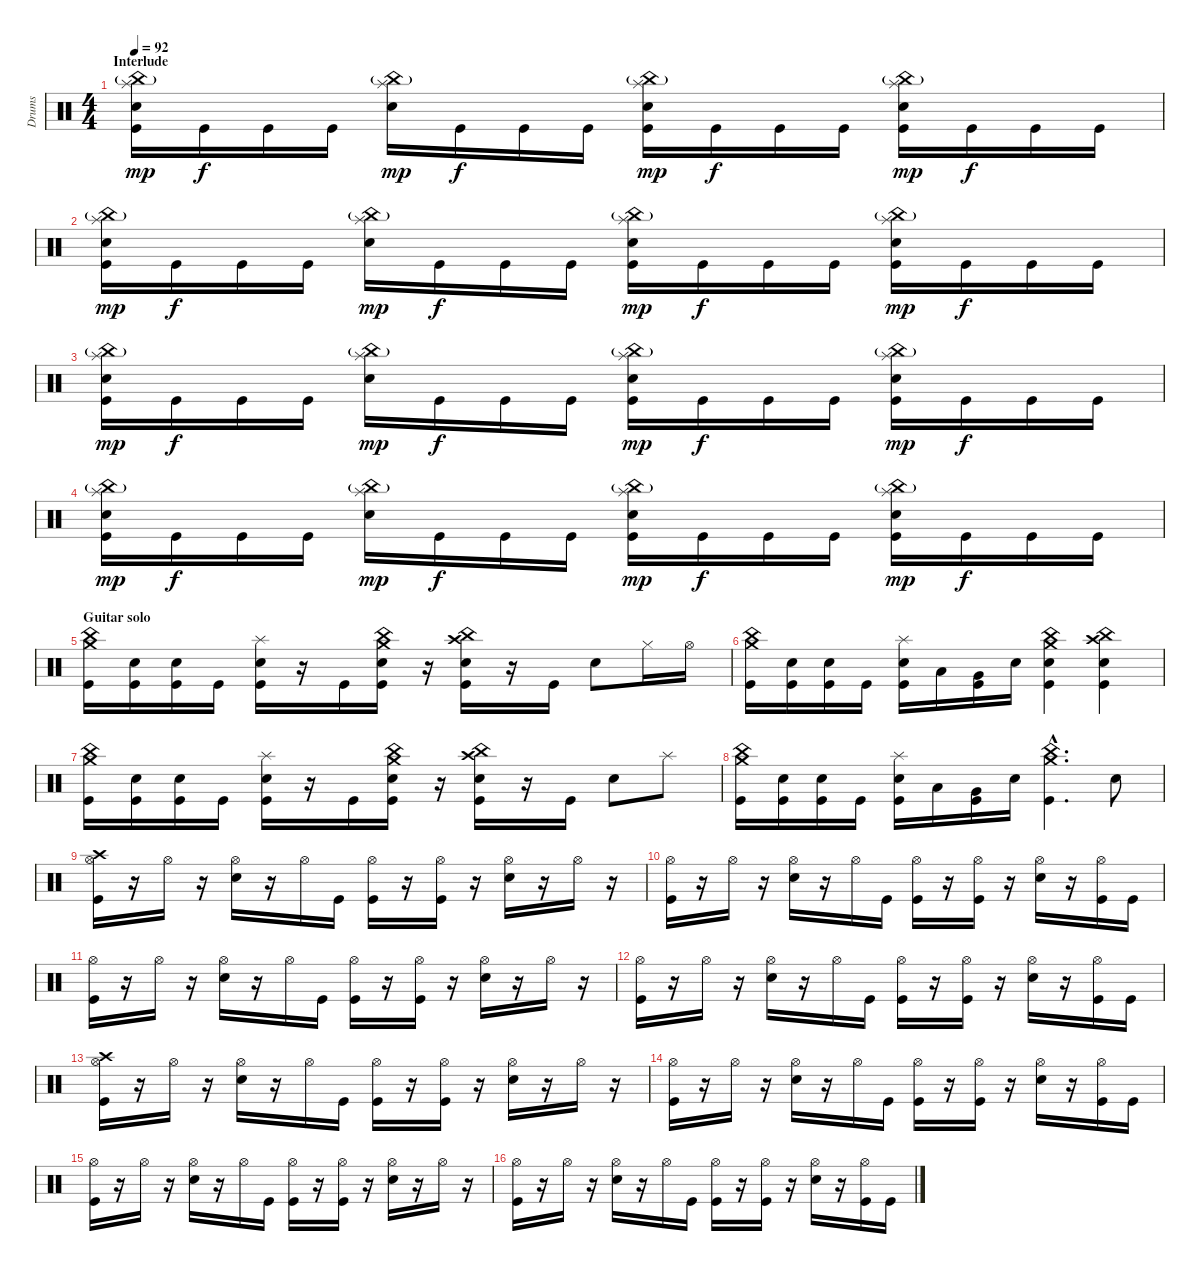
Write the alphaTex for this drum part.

\track ("Drums" "Drums") {instrument percussion}
\staff {score}
\articulation defaults
\ts (4 4)
\section ("" "Interlude")
\tempo 92
\clef neutral
\ks c
("China (hit)"{g} "Splash (hit)" "Snare (hit) 2" "Kick (hit)").16{dy mp} "Kick (hit)".16{dy f} "Kick (hit)".16 "Kick (hit)".16 ("China (hit)"{g} "Splash (hit)" "Snare (hit) 2").16{dy mp} "Kick (hit)".16{dy f} "Kick (hit)".16 "Kick (hit)".16 ("China (hit)"{g} "Splash (hit)" "Snare (hit) 2" "Kick (hit)").16{dy mp} "Kick (hit)".16{dy f} "Kick (hit)".16 "Kick (hit)".16 ("China (hit)"{g} "Splash (hit)" "Snare (hit) 2" "Kick (hit)").16{dy mp} "Kick (hit)".16{dy f} "Kick (hit)".16 "Kick (hit)".16 |
("China (hit)"{g} "Splash (hit)" "Snare (hit) 2" "Kick (hit)").16{dy mp} "Kick (hit)".16{dy f} "Kick (hit)".16 "Kick (hit)".16 ("China (hit)"{g} "Splash (hit)" "Snare (hit) 2").16{dy mp} "Kick (hit)".16{dy f} "Kick (hit)".16 "Kick (hit)".16 ("China (hit)"{g} "Splash (hit)" "Snare (hit) 2" "Kick (hit)").16{dy mp} "Kick (hit)".16{dy f} "Kick (hit)".16 "Kick (hit)".16 ("China (hit)"{g} "Splash (hit)" "Snare (hit) 2" "Kick (hit)").16{dy mp} "Kick (hit)".16{dy f} "Kick (hit)".16 "Kick (hit)".16 |
("China (hit)"{g} "Splash (hit)" "Snare (hit) 2" "Kick (hit)").16{dy mp} "Kick (hit)".16{dy f} "Kick (hit)".16 "Kick (hit)".16 ("China (hit)"{g} "Splash (hit)" "Snare (hit) 2").16{dy mp} "Kick (hit)".16{dy f} "Kick (hit)".16 "Kick (hit)".16 ("China (hit)"{g} "Splash (hit)" "Snare (hit) 2" "Kick (hit)").16{dy mp} "Kick (hit)".16{dy f} "Kick (hit)".16 "Kick (hit)".16 ("China (hit)"{g} "Splash (hit)" "Snare (hit) 2" "Kick (hit)").16{dy mp} "Kick (hit)".16{dy f} "Kick (hit)".16 "Kick (hit)".16 |
("China (hit)"{g} "Splash (hit)" "Snare (hit) 2" "Kick (hit)").16{dy mp} "Kick (hit)".16{dy f} "Kick (hit)".16 "Kick (hit)".16 ("China (hit)"{g} "Splash (hit)" "Snare (hit) 2").16{dy mp} "Kick (hit)".16{dy f} "Kick (hit)".16 "Kick (hit)".16 ("China (hit)"{g} "Splash (hit)" "Snare (hit) 2" "Kick (hit)").16{dy mp} "Kick (hit)".16{dy f} "Kick (hit)".16 "Kick (hit)".16 ("China (hit)"{g} "Splash (hit)" "Snare (hit) 2" "Kick (hit)").16{dy mp} "Kick (hit)".16{dy f} "Kick (hit)".16 "Kick (hit)".16 |
\section ("" "Guitar solo")
("Crash medium (hit)" "China (hit)" "Kick (hit)").16 ("Snare (hit) 2" "Kick (hit)").16 ("Snare (hit) 2" "Kick (hit)").16 "Kick (hit)".16 ("Splash (hit)" "Snare (hit) 2" "Kick (hit)").16 r.16 "Kick (hit)".16 ("Crash medium (hit)" "China (hit)" "Snare (hit) 2" "Kick (hit)").16 r.16 ("Crash high (hit)" "China (hit)" "Snare (hit) 2" "Kick (hit)").16 r.16 "Kick (hit)".16 "Snare (hit) 2".8 "Hi-Hat (closed)".16 "Hi-Hat (open)".16 |
("Crash medium (hit)" "China (hit)" "Kick (hit)").16 ("Snare (hit) 2" "Kick (hit)").16 ("Snare (hit) 2" "Kick (hit)").16 "Kick (hit)".16 ("Splash (hit)" "Snare (hit) 2" "Kick (hit)").16 "Low Tom (hit)".16 ("Very Low Tom (hit)" "Kick (hit)").16 "Snare (hit) 2".16 ("Crash medium (hit)" "China (hit)" "Snare (hit) 2" "Kick (hit)").4 ("Crash high (hit)" "China (hit)" "Snare (hit) 2" "Kick (hit)").4 |
("Crash medium (hit)" "China (hit)" "Kick (hit)").16 ("Snare (hit) 2" "Kick (hit)").16 ("Snare (hit) 2" "Kick (hit)").16 "Kick (hit)".16 ("Splash (hit)" "Snare (hit) 2" "Kick (hit)").16 r.16 "Kick (hit)".16 ("Crash medium (hit)" "China (hit)" "Snare (hit) 2" "Kick (hit)").16 r.16 ("Crash high (hit)" "China (hit)" "Snare (hit) 2" "Kick (hit)").16 r.16 "Kick (hit)".16 "Snare (hit) 2".8 "Splash (hit)".8 |
("Crash medium (hit)" "China (hit)" "Kick (hit)").16 ("Snare (hit) 2" "Kick (hit)").16 ("Snare (hit) 2" "Kick (hit)").16 "Kick (hit)".16 ("Splash (hit)" "Snare (hit) 2" "Kick (hit)").16 "Low Tom (hit)".16 ("Very Low Tom (hit)" "Kick (hit)").16 "Snare (hit) 2".16 ("Crash medium (hit)"{hac} "China (hit)"{hac} "Kick (hit)"{hac}).4{d} "Snare (hit) 2".8 |
("Hi-Hat (open)" "Crash high (hit)" "Kick (hit)").16 r.16 "Hi-Hat (open)".16 r.16 ("Hi-Hat (open)" "Snare (hit) 2").16 r.16 "Hi-Hat (open)".16 "Kick (hit)".16 ("Hi-Hat (open)" "Kick (hit)").16 r.16 ("Hi-Hat (open)" "Kick (hit)").16 r.16 ("Hi-Hat (open)" "Snare (hit) 2").16 r.16 "Hi-Hat (open)".16 r.16 |
("Hi-Hat (open)" "Kick (hit)").16 r.16 "Hi-Hat (open)".16 r.16 ("Hi-Hat (open)" "Snare (hit) 2").16 r.16 "Hi-Hat (open)".16 "Kick (hit)".16 ("Hi-Hat (open)" "Kick (hit)").16 r.16 ("Hi-Hat (open)" "Kick (hit)").16 r.16 ("Hi-Hat (open)" "Snare (hit) 2").16 r.16 ("Hi-Hat (open)" "Kick (hit)").16 "Kick (hit)".16 |
("Hi-Hat (open)" "Kick (hit)").16 r.16 "Hi-Hat (open)".16 r.16 ("Hi-Hat (open)" "Snare (hit) 2").16 r.16 "Hi-Hat (open)".16 "Kick (hit)".16 ("Hi-Hat (open)" "Kick (hit)").16 r.16 ("Hi-Hat (open)" "Kick (hit)").16 r.16 ("Hi-Hat (open)" "Snare (hit) 2").16 r.16 "Hi-Hat (open)".16 r.16 |
("Hi-Hat (open)" "Kick (hit)").16 r.16 "Hi-Hat (open)".16 r.16 ("Hi-Hat (open)" "Snare (hit) 2").16 r.16 "Hi-Hat (open)".16 "Kick (hit)".16 ("Hi-Hat (open)" "Kick (hit)").16 r.16 ("Hi-Hat (open)" "Kick (hit)").16 r.16 ("Hi-Hat (open)" "Snare (hit) 2").16 r.16 ("Hi-Hat (open)" "Kick (hit)").16 "Kick (hit)".16 |
("Hi-Hat (open)" "Crash high (hit)" "Kick (hit)").16 r.16 "Hi-Hat (open)".16 r.16 ("Hi-Hat (open)" "Snare (hit) 2").16 r.16 "Hi-Hat (open)".16 "Kick (hit)".16 ("Hi-Hat (open)" "Kick (hit)").16 r.16 ("Hi-Hat (open)" "Kick (hit)").16 r.16 ("Hi-Hat (open)" "Snare (hit) 2").16 r.16 "Hi-Hat (open)".16 r.16 |
("Hi-Hat (open)" "Kick (hit)").16 r.16 "Hi-Hat (open)".16 r.16 ("Hi-Hat (open)" "Snare (hit) 2").16 r.16 "Hi-Hat (open)".16 "Kick (hit)".16 ("Hi-Hat (open)" "Kick (hit)").16 r.16 ("Hi-Hat (open)" "Kick (hit)").16 r.16 ("Hi-Hat (open)" "Snare (hit) 2").16 r.16 ("Hi-Hat (open)" "Kick (hit)").16 "Kick (hit)".16 |
("Hi-Hat (open)" "Kick (hit)").16 r.16 "Hi-Hat (open)".16 r.16 ("Hi-Hat (open)" "Snare (hit) 2").16 r.16 "Hi-Hat (open)".16 "Kick (hit)".16 ("Hi-Hat (open)" "Kick (hit)").16 r.16 ("Hi-Hat (open)" "Kick (hit)").16 r.16 ("Hi-Hat (open)" "Snare (hit) 2").16 r.16 "Hi-Hat (open)".16 r.16 |
("Hi-Hat (open)" "Kick (hit)").16 r.16 "Hi-Hat (open)".16 r.16 ("Hi-Hat (open)" "Snare (hit) 2").16 r.16 "Hi-Hat (open)".16 "Kick (hit)".16 ("Hi-Hat (open)" "Kick (hit)").16 r.16 ("Hi-Hat (open)" "Kick (hit)").16 r.16 ("Hi-Hat (open)" "Snare (hit) 2").16 r.16 ("Hi-Hat (open)" "Kick (hit)").16 "Kick (hit)".16
